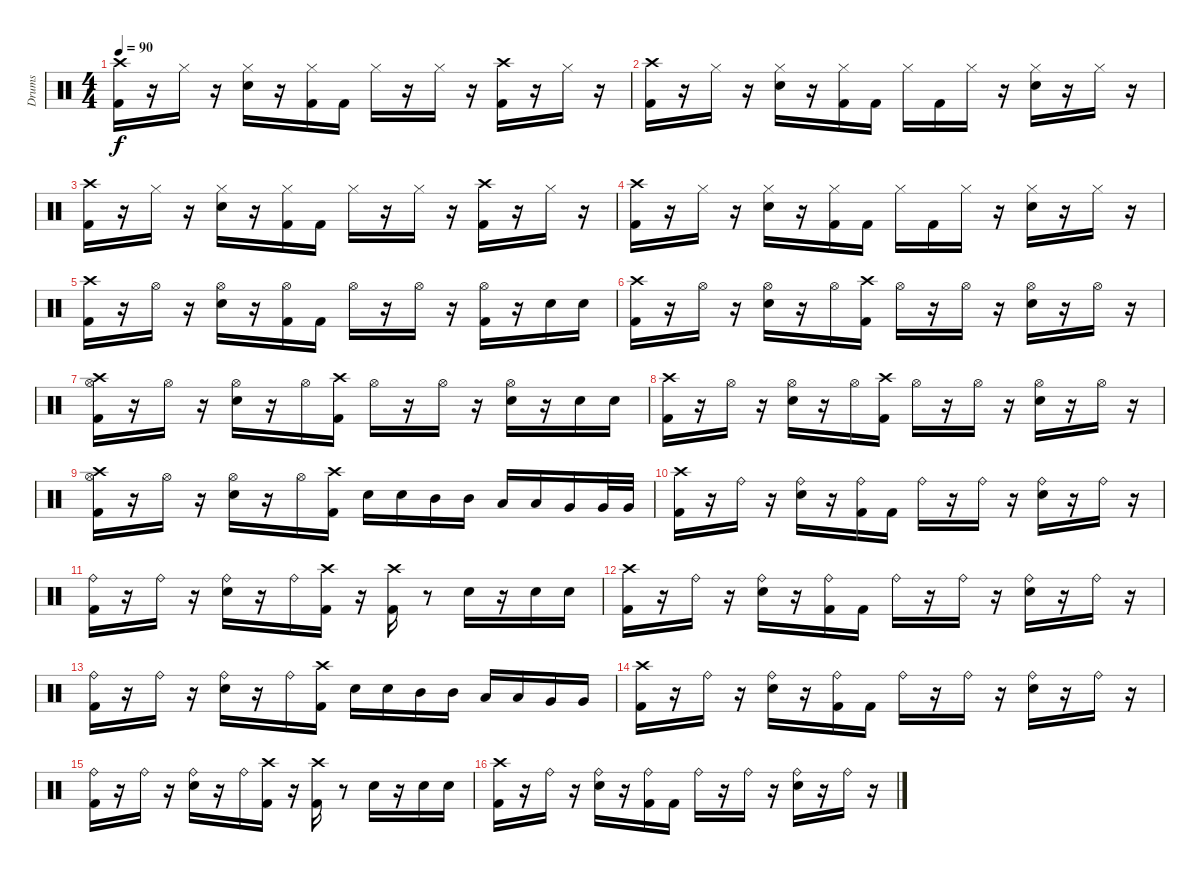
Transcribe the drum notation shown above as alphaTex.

\track ("Drums" "Drums") {instrument percussion}
\staff {score}
\articulation defaults
\ts (4 4)
\tempo 90
\clef neutral
\ks c
("Crash high (hit)" "Kick (hit) 2").16{dy f} r.16 "Hi-Hat (closed)".16 r.16 ("Electric Snare (hit)" "Hi-Hat (closed)").16 r.16 ("Kick (hit) 2" "Hi-Hat (closed)").16 "Kick (hit) 2".16 "Hi-Hat (closed)".16 r.16 "Hi-Hat (closed)".16 r.16 ("Kick (hit) 2" "Crash high (hit)").16 r.16 "Hi-Hat (closed)".16 r.16 |
("Kick (hit) 2" "Crash high (hit)").16 r.16 "Hi-Hat (closed)".16 r.16 ("Electric Snare (hit)" "Hi-Hat (closed)").16 r.16 ("Kick (hit) 2" "Hi-Hat (closed)").16 "Kick (hit) 2".16 "Hi-Hat (closed)".16 "Kick (hit) 2".16 "Hi-Hat (closed)".16 r.16 ("Electric Snare (hit)" "Hi-Hat (closed)").16 r.16 "Hi-Hat (closed)".16 r.16 |
("Crash high (hit)" "Kick (hit) 2").16 r.16 "Hi-Hat (closed)".16 r.16 ("Electric Snare (hit)" "Hi-Hat (closed)").16 r.16 ("Kick (hit) 2" "Hi-Hat (closed)").16 "Kick (hit) 2".16 "Hi-Hat (closed)".16 r.16 "Hi-Hat (closed)".16 r.16 ("Kick (hit) 2" "Crash high (hit)").16 r.16 "Hi-Hat (closed)".16 r.16 |
("Crash high (hit)" "Kick (hit) 2").16 r.16 "Hi-Hat (closed)".16 r.16 ("Hi-Hat (closed)" "Electric Snare (hit)").16 r.16 ("Hi-Hat (closed)" "Kick (hit) 2").16 "Kick (hit) 2".16 "Hi-Hat (closed)".16 "Kick (hit) 2".16 "Hi-Hat (closed)".16 r.16 ("Hi-Hat (closed)" "Electric Snare (hit)").16 r.16 "Hi-Hat (closed)".16 r.16 |
("Crash high (hit)" "Kick (hit) 2").16 r.16 "Hi-Hat (open)".16 r.16 ("Hi-Hat (open)" "Electric Snare (hit)").16 r.16 ("Hi-Hat (open)" "Kick (hit) 2").16 "Kick (hit) 2".16 "Hi-Hat (open)".16 r.16 "Hi-Hat (open)".16 r.16 ("Hi-Hat (open)" "Kick (hit) 2").16 r.16 "Electric Snare (hit)".16 "Electric Snare (hit)".16 |
("Crash high (hit)" "Kick (hit) 2").16 r.16 "Hi-Hat (open)".16 r.16 ("Hi-Hat (open)" "Electric Snare (hit)").16 r.16 "Hi-Hat (open)".16 ("Crash high (hit)" "Kick (hit) 2").16 "Hi-Hat (open)".16 r.16 "Hi-Hat (open)".16 r.16 ("Electric Snare (hit)" "Hi-Hat (open)").16 r.16 "Hi-Hat (open)".16 r.16 |
("Crash high (hit)" "Hi-Hat (open)" "Kick (hit) 2").16 r.16 "Hi-Hat (open)".16 r.16 ("Electric Snare (hit)" "Hi-Hat (open)").16 r.16 "Hi-Hat (open)".16 ("Crash high (hit)" "Kick (hit) 2").16 "Hi-Hat (open)".16 r.16 "Hi-Hat (open)".16 r.16 ("Hi-Hat (open)" "Electric Snare (hit)").16 r.16 "Electric Snare (hit)".16 "Electric Snare (hit)".16 |
("Kick (hit) 2" "Crash high (hit)").16 r.16 "Hi-Hat (open)".16 r.16 ("Electric Snare (hit)" "Hi-Hat (open)").16 r.16 "Hi-Hat (open)".16 ("Crash high (hit)" "Kick (hit) 2").16 "Hi-Hat (open)".16 r.16 "Hi-Hat (open)".16 r.16 ("Hi-Hat (open)" "Electric Snare (hit)").16 r.16 "Hi-Hat (open)".16 r.16 |
("Crash high (hit)" "Kick (hit) 2" "Hi-Hat (open)").16 r.16 "Hi-Hat (open)".16 r.16 ("Hi-Hat (open)" "Electric Snare (hit)").16 r.16 "Hi-Hat (open)".16 ("Crash high (hit)" "Kick (hit) 2").16 "Electric Snare (hit)".16 "Electric Snare (hit)".16 "Mid Tom (hit)".16 "Mid Tom (hit)".16 "Low Tom (hit)".16 "Low Tom (hit)".16 "Very Low Tom (hit)".16 "Very Low Tom (hit)".32 "Very Low Tom (hit)".32 |
("Kick (hit) 2" "Crash high (hit)").16 r.16 "Ride (bell)".16 r.16 ("Ride (bell)" "Electric Snare (hit)").16 r.16 ("Kick (hit) 2" "Ride (bell)").16 "Kick (hit) 2".16 "Ride (bell)".16 r.16 "Ride (bell)".16 r.16 ("Ride (bell)" "Electric Snare (hit)").16 r.16 "Ride (bell)".16 r.16 |
("Ride (bell)" "Kick (hit) 2").16 r.16 "Ride (bell)".16 r.16 ("Ride (bell)" "Electric Snare (hit)").16 r.16 "Ride (bell)".16 ("Crash high (hit)" "Kick (hit) 2").16 r.16 ("Kick (hit) 2" "Crash high (hit)").16 r.8 "Electric Snare (hit)".16 r.16 "Electric Snare (hit)".16 "Electric Snare (hit)".16 |
("Crash high (hit)" "Kick (hit) 2").16 r.16 "Ride (bell)".16 r.16 ("Electric Snare (hit)" "Ride (bell)").16 r.16 ("Ride (bell)" "Kick (hit) 2").16 "Kick (hit) 2".16 "Ride (bell)".16 r.16 "Ride (bell)".16 r.16 ("Electric Snare (hit)" "Ride (bell)").16 r.16 "Ride (bell)".16 r.16 |
("Kick (hit) 2" "Ride (bell)").16 r.16 "Ride (bell)".16 r.16 ("Electric Snare (hit)" "Ride (bell)").16 r.16 "Ride (bell)".16 ("Kick (hit) 2" "Crash high (hit)").16 "Electric Snare (hit)".16 "Electric Snare (hit)".16 "Mid Tom (hit)".16 "Mid Tom (hit)".16 "Low Tom (hit)".16 "Low Tom (hit)".16 "Very Low Tom (hit)".16 "Very Low Tom (hit)".16 |
("Crash high (hit)" "Kick (hit) 2").16 r.16 "Ride (bell)".16 r.16 ("Electric Snare (hit)" "Ride (bell)").16 r.16 ("Ride (bell)" "Kick (hit) 2").16 "Kick (hit) 2".16 "Ride (bell)".16 r.16 "Ride (bell)".16 r.16 ("Electric Snare (hit)" "Ride (bell)").16 r.16 "Ride (bell)".16 r.16 |
("Kick (hit) 2" "Ride (bell)").16 r.16 "Ride (bell)".16 r.16 ("Electric Snare (hit)" "Ride (bell)").16 r.16 "Ride (bell)".16 ("Kick (hit) 2" "Crash high (hit)").16 r.16 ("Crash high (hit)" "Kick (hit) 2").16 r.8 "Electric Snare (hit)".16 r.16 "Electric Snare (hit)".16 "Electric Snare (hit)".16 |
("Kick (hit) 2" "Crash high (hit)").16 r.16 "Ride (bell)".16 r.16 ("Ride (bell)" "Electric Snare (hit)").16 r.16 ("Kick (hit) 2" "Ride (bell)").16 "Kick (hit) 2".16 "Ride (bell)".16 r.16 "Ride (bell)".16 r.16 ("Ride (bell)" "Electric Snare (hit)").16 r.16 "Ride (bell)".16 r.16
